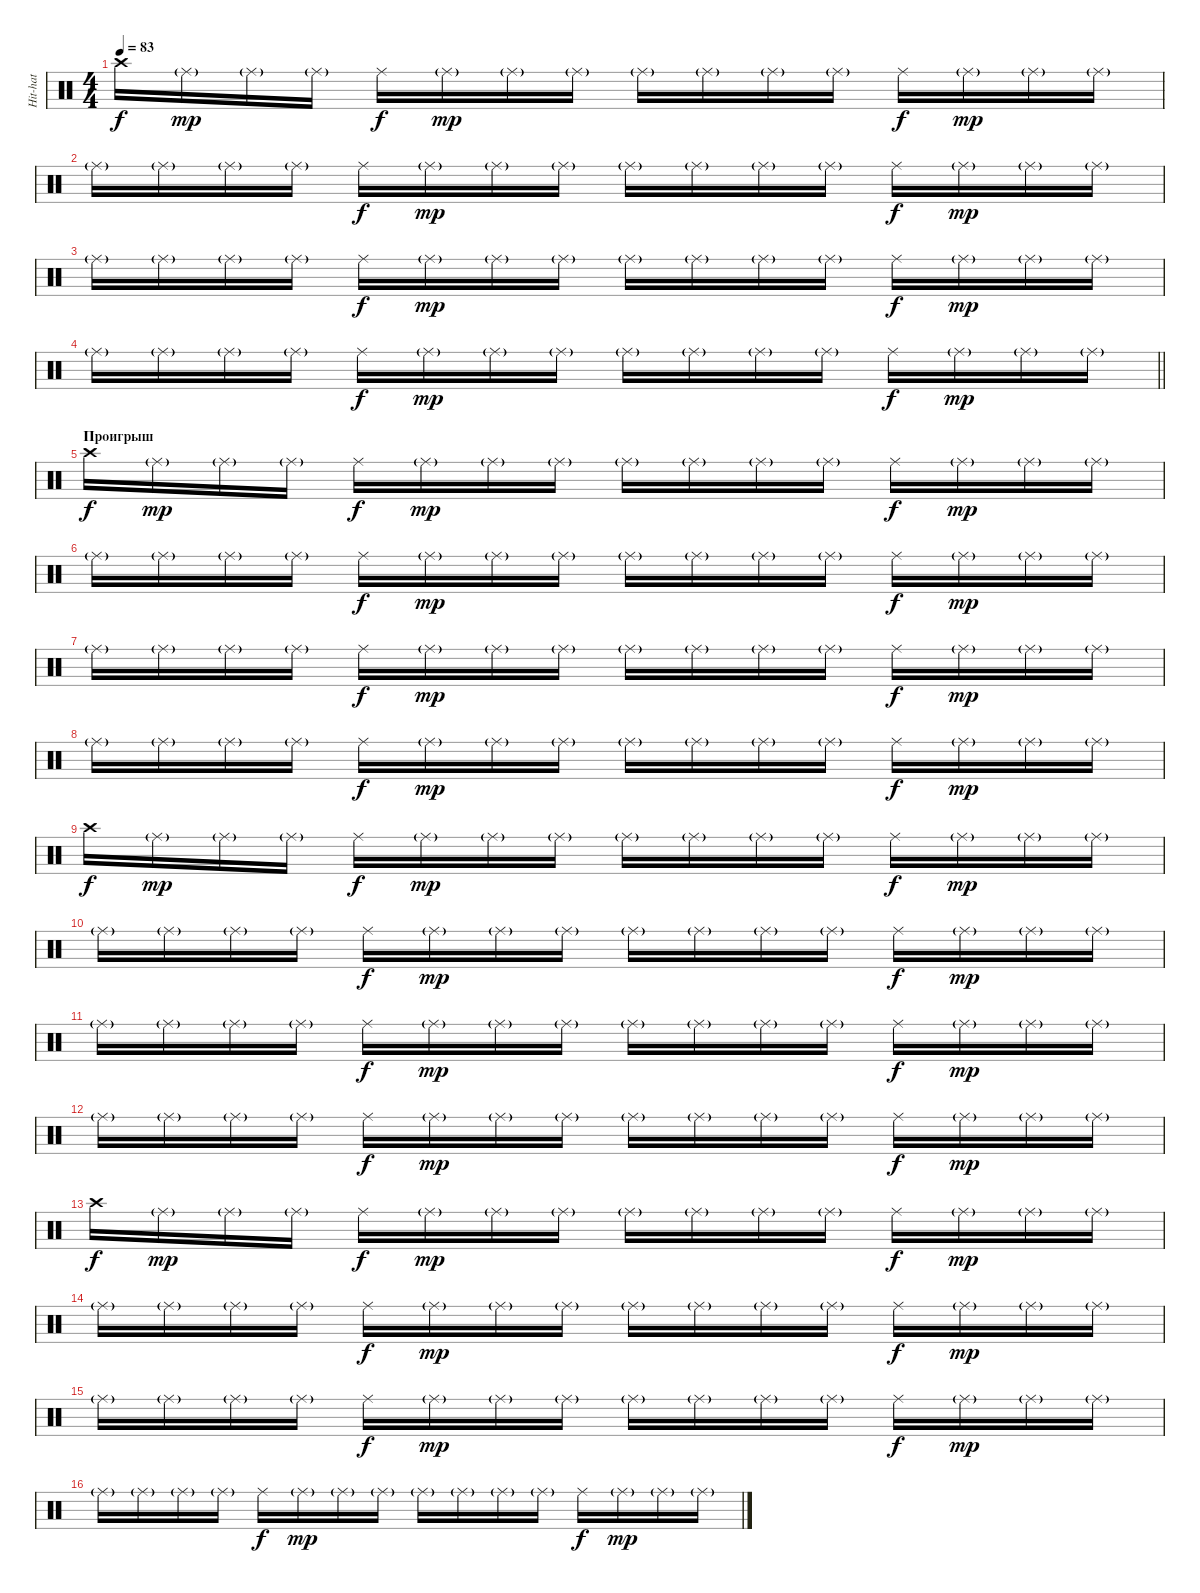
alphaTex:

\track ("Hit-hat" "Hit-hat") {instrument percussion}
\staff {score}
\articulation defaults
\ts (4 4)
\tempo 83
\clef neutral
\ks c "Crash high (hit)".16{dy f} "Ride (middle)"{g}.16{dy mp} "Ride (middle)"{g}.16 "Ride (middle)"{g}.16 "Ride (middle)".16{dy f} "Ride (middle)"{g}.16{dy mp} "Ride (middle)"{g}.16 "Ride (middle)"{g}.16 "Ride (middle)"{g}.16 "Ride (middle)"{g}.16 "Ride (middle)"{g}.16 "Ride (middle)"{g}.16 "Ride (middle)".16{dy f} "Ride (middle)"{g}.16{dy mp} "Ride (middle)"{g}.16 "Ride (middle)"{g}.16
|
"Ride (middle)"{g}.16 "Ride (middle)"{g}.16 "Ride (middle)"{g}.16 "Ride (middle)"{g}.16 "Ride (middle)".16{dy f} "Ride (middle)"{g}.16{dy mp} "Ride (middle)"{g}.16 "Ride (middle)"{g}.16 "Ride (middle)"{g}.16 "Ride (middle)"{g}.16 "Ride (middle)"{g}.16 "Ride (middle)"{g}.16 "Ride (middle)".16{dy f} "Ride (middle)"{g}.16{dy mp} "Ride (middle)"{g}.16 "Ride (middle)"{g}.16 |
"Ride (middle)"{g}.16 "Ride (middle)"{g}.16 "Ride (middle)"{g}.16 "Ride (middle)"{g}.16 "Ride (middle)".16{dy f} "Ride (middle)"{g}.16{dy mp} "Ride (middle)"{g}.16 "Ride (middle)"{g}.16 "Ride (middle)"{g}.16 "Ride (middle)"{g}.16 "Ride (middle)"{g}.16 "Ride (middle)"{g}.16 "Ride (middle)".16{dy f} "Ride (middle)"{g}.16{dy mp} "Ride (middle)"{g}.16 "Ride (middle)"{g}.16 |
\barLineRight lightlight "Ride (middle)"{g}.16 "Ride (middle)"{g}.16 "Ride (middle)"{g}.16 "Ride (middle)"{g}.16 "Ride (middle)".16{dy f} "Ride (middle)"{g}.16{dy mp} "Ride (middle)"{g}.16 "Ride (middle)"{g}.16 "Ride (middle)"{g}.16 "Ride (middle)"{g}.16 "Ride (middle)"{g}.16 "Ride (middle)"{g}.16 "Ride (middle)".16{dy f} "Ride (middle)"{g}.16{dy mp} "Ride (middle)"{g}.16 "Ride (middle)"{g}.16
|
\section ("" "Проигрыш")
"Crash high (hit)".16{dy f} "Ride (middle)"{g}.16{dy mp} "Ride (middle)"{g}.16 "Ride (middle)"{g}.16 "Ride (middle)".16{dy f} "Ride (middle)"{g}.16{dy mp} "Ride (middle)"{g}.16 "Ride (middle)"{g}.16 "Ride (middle)"{g}.16 "Ride (middle)"{g}.16 "Ride (middle)"{g}.16 "Ride (middle)"{g}.16 "Ride (middle)".16{dy f} "Ride (middle)"{g}.16{dy mp} "Ride (middle)"{g}.16 "Ride (middle)"{g}.16 |
"Ride (middle)"{g}.16 "Ride (middle)"{g}.16 "Ride (middle)"{g}.16 "Ride (middle)"{g}.16 "Ride (middle)".16{dy f} "Ride (middle)"{g}.16{dy mp} "Ride (middle)"{g}.16 "Ride (middle)"{g}.16 "Ride (middle)"{g}.16 "Ride (middle)"{g}.16 "Ride (middle)"{g}.16 "Ride (middle)"{g}.16 "Ride (middle)".16{dy f} "Ride (middle)"{g}.16{dy mp} "Ride (middle)"{g}.16 "Ride (middle)"{g}.16 |
"Ride (middle)"{g}.16 "Ride (middle)"{g}.16 "Ride (middle)"{g}.16 "Ride (middle)"{g}.16 "Ride (middle)".16{dy f} "Ride (middle)"{g}.16{dy mp} "Ride (middle)"{g}.16 "Ride (middle)"{g}.16 "Ride (middle)"{g}.16 "Ride (middle)"{g}.16 "Ride (middle)"{g}.16 "Ride (middle)"{g}.16 "Ride (middle)".16{dy f} "Ride (middle)"{g}.16{dy mp} "Ride (middle)"{g}.16 "Ride (middle)"{g}.16 |
"Ride (middle)"{g}.16 "Ride (middle)"{g}.16 "Ride (middle)"{g}.16 "Ride (middle)"{g}.16 "Ride (middle)".16{dy f} "Ride (middle)"{g}.16{dy mp} "Ride (middle)"{g}.16 "Ride (middle)"{g}.16 "Ride (middle)"{g}.16 "Ride (middle)"{g}.16 "Ride (middle)"{g}.16 "Ride (middle)"{g}.16 "Ride (middle)".16{dy f} "Ride (middle)"{g}.16{dy mp} "Ride (middle)"{g}.16 "Ride (middle)"{g}.16 |
"Crash high (hit)".16{dy f} "Ride (middle)"{g}.16{dy mp} "Ride (middle)"{g}.16 "Ride (middle)"{g}.16 "Ride (middle)".16{dy f} "Ride (middle)"{g}.16{dy mp} "Ride (middle)"{g}.16 "Ride (middle)"{g}.16 "Ride (middle)"{g}.16 "Ride (middle)"{g}.16 "Ride (middle)"{g}.16 "Ride (middle)"{g}.16 "Ride (middle)".16{dy f} "Ride (middle)"{g}.16{dy mp} "Ride (middle)"{g}.16 "Ride (middle)"{g}.16 |
"Ride (middle)"{g}.16 "Ride (middle)"{g}.16 "Ride (middle)"{g}.16 "Ride (middle)"{g}.16 "Ride (middle)".16{dy f} "Ride (middle)"{g}.16{dy mp} "Ride (middle)"{g}.16 "Ride (middle)"{g}.16 "Ride (middle)"{g}.16 "Ride (middle)"{g}.16 "Ride (middle)"{g}.16 "Ride (middle)"{g}.16 "Ride (middle)".16{dy f} "Ride (middle)"{g}.16{dy mp} "Ride (middle)"{g}.16 "Ride (middle)"{g}.16 |
"Ride (middle)"{g}.16 "Ride (middle)"{g}.16 "Ride (middle)"{g}.16 "Ride (middle)"{g}.16 "Ride (middle)".16{dy f} "Ride (middle)"{g}.16{dy mp} "Ride (middle)"{g}.16 "Ride (middle)"{g}.16 "Ride (middle)"{g}.16 "Ride (middle)"{g}.16 "Ride (middle)"{g}.16 "Ride (middle)"{g}.16 "Ride (middle)".16{dy f} "Ride (middle)"{g}.16{dy mp} "Ride (middle)"{g}.16 "Ride (middle)"{g}.16 |
"Ride (middle)"{g}.16 "Ride (middle)"{g}.16 "Ride (middle)"{g}.16 "Ride (middle)"{g}.16 "Ride (middle)".16{dy f} "Ride (middle)"{g}.16{dy mp} "Ride (middle)"{g}.16 "Ride (middle)"{g}.16 "Ride (middle)"{g}.16 "Ride (middle)"{g}.16 "Ride (middle)"{g}.16 "Ride (middle)"{g}.16 "Ride (middle)".16{dy f} "Ride (middle)"{g}.16{dy mp} "Ride (middle)"{g}.16 "Ride (middle)"{g}.16 |
"Crash high (hit)".16{dy f} "Ride (middle)"{g}.16{dy mp} "Ride (middle)"{g}.16 "Ride (middle)"{g}.16 "Ride (middle)".16{dy f} "Ride (middle)"{g}.16{dy mp} "Ride (middle)"{g}.16 "Ride (middle)"{g}.16 "Ride (middle)"{g}.16 "Ride (middle)"{g}.16 "Ride (middle)"{g}.16 "Ride (middle)"{g}.16 "Ride (middle)".16{dy f} "Ride (middle)"{g}.16{dy mp} "Ride (middle)"{g}.16 "Ride (middle)"{g}.16 |
"Ride (middle)"{g}.16 "Ride (middle)"{g}.16 "Ride (middle)"{g}.16 "Ride (middle)"{g}.16 "Ride (middle)".16{dy f} "Ride (middle)"{g}.16{dy mp} "Ride (middle)"{g}.16 "Ride (middle)"{g}.16 "Ride (middle)"{g}.16 "Ride (middle)"{g}.16 "Ride (middle)"{g}.16 "Ride (middle)"{g}.16 "Ride (middle)".16{dy f} "Ride (middle)"{g}.16{dy mp} "Ride (middle)"{g}.16 "Ride (middle)"{g}.16 |
"Ride (middle)"{g}.16 "Ride (middle)"{g}.16 "Ride (middle)"{g}.16 "Ride (middle)"{g}.16 "Ride (middle)".16{dy f} "Ride (middle)"{g}.16{dy mp} "Ride (middle)"{g}.16 "Ride (middle)"{g}.16 "Ride (middle)"{g}.16 "Ride (middle)"{g}.16 "Ride (middle)"{g}.16 "Ride (middle)"{g}.16 "Ride (middle)".16{dy f} "Ride (middle)"{g}.16{dy mp} "Ride (middle)"{g}.16 "Ride (middle)"{g}.16 |
"Ride (middle)"{g}.16 "Ride (middle)"{g}.16 "Ride (middle)"{g}.16 "Ride (middle)"{g}.16 "Ride (middle)".16{dy f} "Ride (middle)"{g}.16{dy mp} "Ride (middle)"{g}.16 "Ride (middle)"{g}.16 "Ride (middle)"{g}.16 "Ride (middle)"{g}.16 "Ride (middle)"{g}.16 "Ride (middle)"{g}.16 "Ride (middle)".16{dy f} "Ride (middle)"{g}.16{dy mp} "Ride (middle)"{g}.16 "Ride (middle)"{g}.16
